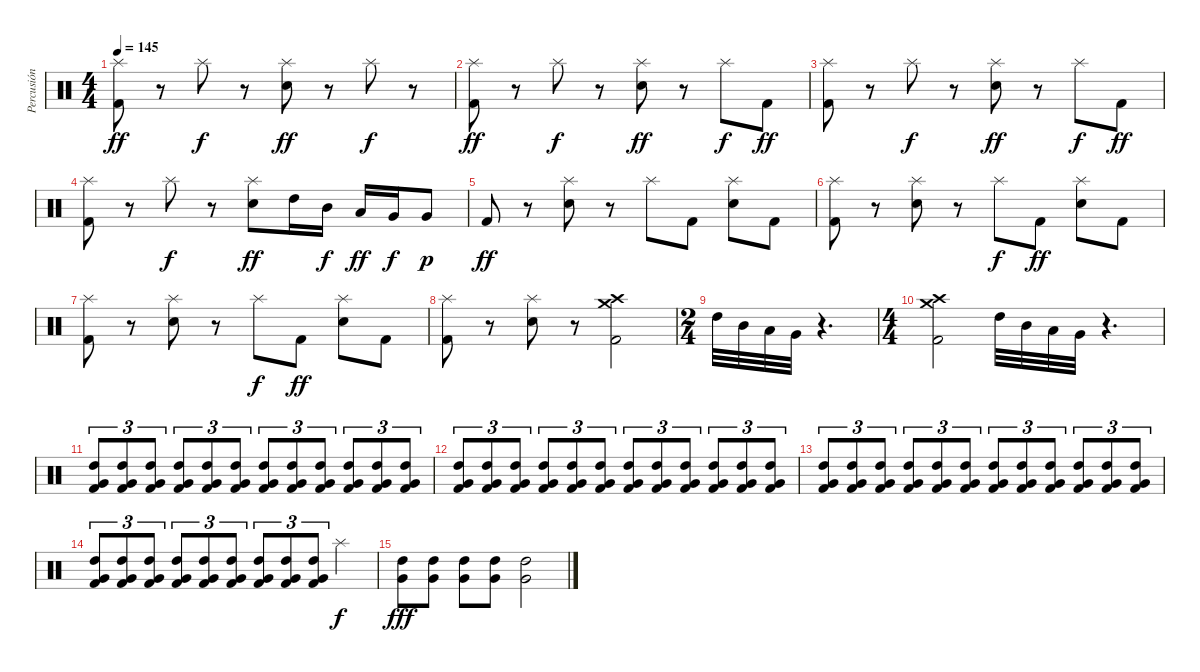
\track ("Percusión" "Percusión") {instrument percussion}
\staff {score}
\articulation defaults
\ts (4 4)
\tempo 145
\clef neutral
\ks c
("Splash (hit)" "Kick (hit) 2").8{dy ff} r.8 "Splash (hit)".8{dy f} r.8 ("Splash (hit)" "Electric Snare (hit)").8{dy ff} r.8 "Splash (hit)".8{dy f} r.8 |
("Splash (hit)" "Kick (hit) 2").8{dy ff} r.8 "Splash (hit)".8{dy f} r.8 ("Splash (hit)" "Electric Snare (hit)").8{dy ff} r.8 "Splash (hit)".8{dy f} "Kick (hit) 2".8{dy ff} |
("Splash (hit)" "Kick (hit) 2").8 r.8 "Splash (hit)".8{dy f} r.8 ("Splash (hit)" "Electric Snare (hit)").8{dy ff} r.8 "Splash (hit)".8{dy f} "Kick (hit) 2".8{dy ff} |
("Splash (hit)" "Kick (hit) 2").8 r.8 "Splash (hit)".8{dy f} r.8 ("Splash (hit)" "Electric Snare (hit)").8{dy ff} "High Tom (hit)".16 "Mid Tom (hit)".16{dy f} "Low Tom (hit)".16{dy ff} "Very Low Tom (hit)".16{dy f} "Very Low Tom (hit)".8{dy p} |
"Kick (hit) 2".8{dy ff} r.8 ("Splash (hit)" "Electric Snare (hit)").8 r.8 "Splash (hit)".8 "Kick (hit) 2".8 ("Splash (hit)" "Electric Snare (hit)").8 "Kick (hit) 2".8 |
("Splash (hit)" "Kick (hit) 2").8 r.8 ("Splash (hit)" "Electric Snare (hit)").8 r.8 "Splash (hit)".8{dy f} "Kick (hit) 2".8{dy ff} ("Splash (hit)" "Electric Snare (hit)").8 "Kick (hit) 2".8 |
("Splash (hit)" "Kick (hit) 2").8 r.8 ("Splash (hit)" "Electric Snare (hit)").8 r.8 "Splash (hit)".8{dy f} "Kick (hit) 2".8{dy ff} ("Splash (hit)" "Electric Snare (hit)").8 "Kick (hit) 2".8 |
("Splash (hit)" "Kick (hit) 2").8 r.8 ("Splash (hit)" "Electric Snare (hit)").8 r.8 ("Crash medium (hit)" "Crash high (hit)" "Kick (hit) 2").2 |
\ts (2 4)
"High Tom (hit)".32 "Mid Tom (hit)".32 "Low Tom (hit)".32 "Very Low Tom (hit)".32 r.4{d} |
\ts (4 4)
("Crash medium (hit)" "Crash high (hit)" "Kick (hit) 2").2 "High Tom (hit)".32 "Mid Tom (hit)".32 "Low Tom (hit)".32 "Very Low Tom (hit)".32 r.4{d} |
("High Tom (hit)" "Very Low Tom (hit)" "Kick (hit) 2").8{tu (3 2)} ("High Tom (hit)" "Very Low Tom (hit)" "Kick (hit) 2").8{tu (3 2)} ("High Tom (hit)" "Very Low Tom (hit)" "Kick (hit) 2").8{tu (3 2)} ("High Tom (hit)" "Very Low Tom (hit)" "Kick (hit) 2").8{tu (3 2)} ("High Tom (hit)" "Very Low Tom (hit)" "Kick (hit) 2").8{tu (3 2)} ("High Tom (hit)" "Very Low Tom (hit)" "Kick (hit) 2").8{tu (3 2)} ("High Tom (hit)" "Very Low Tom (hit)" "Kick (hit) 2").8{tu (3 2)} ("High Tom (hit)" "Very Low Tom (hit)" "Kick (hit) 2").8{tu (3 2)} ("High Tom (hit)" "Very Low Tom (hit)" "Kick (hit) 2").8{tu (3 2)} ("High Tom (hit)" "Very Low Tom (hit)" "Kick (hit) 2").8{tu (3 2)} ("High Tom (hit)" "Very Low Tom (hit)" "Kick (hit) 2").8{tu (3 2)} ("High Tom (hit)" "Very Low Tom (hit)" "Kick (hit) 2").8{tu (3 2)} |
("High Tom (hit)" "Very Low Tom (hit)" "Kick (hit) 2").8{tu (3 2)} ("High Tom (hit)" "Very Low Tom (hit)" "Kick (hit) 2").8{tu (3 2)} ("High Tom (hit)" "Very Low Tom (hit)" "Kick (hit) 2").8{tu (3 2)} ("High Tom (hit)" "Very Low Tom (hit)" "Kick (hit) 2").8{tu (3 2)} ("High Tom (hit)" "Very Low Tom (hit)" "Kick (hit) 2").8{tu (3 2)} ("High Tom (hit)" "Very Low Tom (hit)" "Kick (hit) 2").8{tu (3 2)} ("High Tom (hit)" "Very Low Tom (hit)" "Kick (hit) 2").8{tu (3 2)} ("High Tom (hit)" "Very Low Tom (hit)" "Kick (hit) 2").8{tu (3 2)} ("High Tom (hit)" "Very Low Tom (hit)" "Kick (hit) 2").8{tu (3 2)} ("High Tom (hit)" "Very Low Tom (hit)" "Kick (hit) 2").8{tu (3 2)} ("High Tom (hit)" "Very Low Tom (hit)" "Kick (hit) 2").8{tu (3 2)} ("High Tom (hit)" "Very Low Tom (hit)" "Kick (hit) 2").8{tu (3 2)} |
("High Tom (hit)" "Very Low Tom (hit)" "Kick (hit) 2").8{tu (3 2)} ("High Tom (hit)" "Very Low Tom (hit)" "Kick (hit) 2").8{tu (3 2)} ("High Tom (hit)" "Very Low Tom (hit)" "Kick (hit) 2").8{tu (3 2)} ("High Tom (hit)" "Very Low Tom (hit)" "Kick (hit) 2").8{tu (3 2)} ("High Tom (hit)" "Very Low Tom (hit)" "Kick (hit) 2").8{tu (3 2)} ("High Tom (hit)" "Very Low Tom (hit)" "Kick (hit) 2").8{tu (3 2)} ("High Tom (hit)" "Very Low Tom (hit)" "Kick (hit) 2").8{tu (3 2)} ("High Tom (hit)" "Very Low Tom (hit)" "Kick (hit) 2").8{tu (3 2)} ("High Tom (hit)" "Very Low Tom (hit)" "Kick (hit) 2").8{tu (3 2)} ("High Tom (hit)" "Very Low Tom (hit)" "Kick (hit) 2").8{tu (3 2)} ("High Tom (hit)" "Very Low Tom (hit)" "Kick (hit) 2").8{tu (3 2)} ("High Tom (hit)" "Very Low Tom (hit)" "Kick (hit) 2").8{tu (3 2)} |
("High Tom (hit)" "Very Low Tom (hit)" "Kick (hit) 2").8{tu (3 2)} ("High Tom (hit)" "Very Low Tom (hit)" "Kick (hit) 2").8{tu (3 2)} ("High Tom (hit)" "Very Low Tom (hit)" "Kick (hit) 2").8{tu (3 2)} ("High Tom (hit)" "Very Low Tom (hit)" "Kick (hit) 2").8{tu (3 2)} ("High Tom (hit)" "Very Low Tom (hit)" "Kick (hit) 2").8{tu (3 2)} ("High Tom (hit)" "Very Low Tom (hit)" "Kick (hit) 2").8{tu (3 2)} ("High Tom (hit)" "Very Low Tom (hit)" "Kick (hit) 2").8{tu (3 2)} ("High Tom (hit)" "Very Low Tom (hit)" "Kick (hit) 2").8{tu (3 2)} ("High Tom (hit)" "Very Low Tom (hit)" "Kick (hit) 2").8{tu (3 2)} "Splash (hit)".4{dy f} |
("High Tom (hit)" "Very Low Tom (hit)").8{dy fff} ("High Tom (hit)" "Very Low Tom (hit)").8 ("High Tom (hit)" "Very Low Tom (hit)").8 ("High Tom (hit)" "Very Low Tom (hit)").8 ("High Tom (hit)" "Very Low Tom (hit)").2
